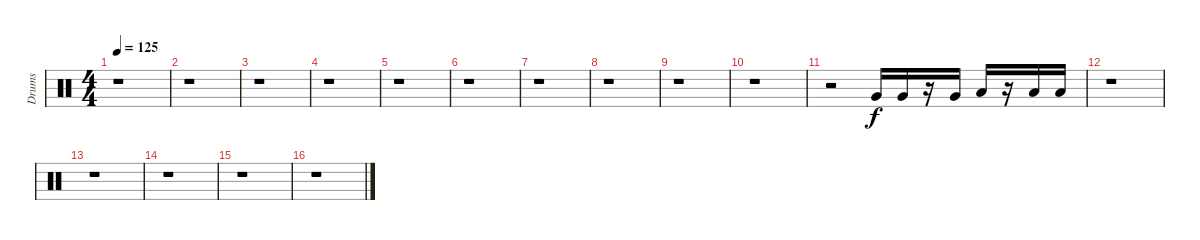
\track ("Drums" "Drums") {instrument percussion}
\staff {score}
\articulation defaults
\ts (4 4)
\tempo 125
\clef neutral
\ks c
r.1{dy f} |
r.1 |
r.1 |
r.1 |
r.1 |
r.1 |
r.1 |
r.1 |
r.1 |
r.1 |
r.2 "Very Low Tom (hit)".16{volume 13} "Very Low Tom (hit)".16 r.16 "Very Low Tom (hit)".16 "Low Floor Tom (hit)".16 r.16 "Low Floor Tom (hit)".16 "Low Floor Tom (hit)".16 |
r.1 |
r.1 |
r.1 |
r.1 |
r.1
